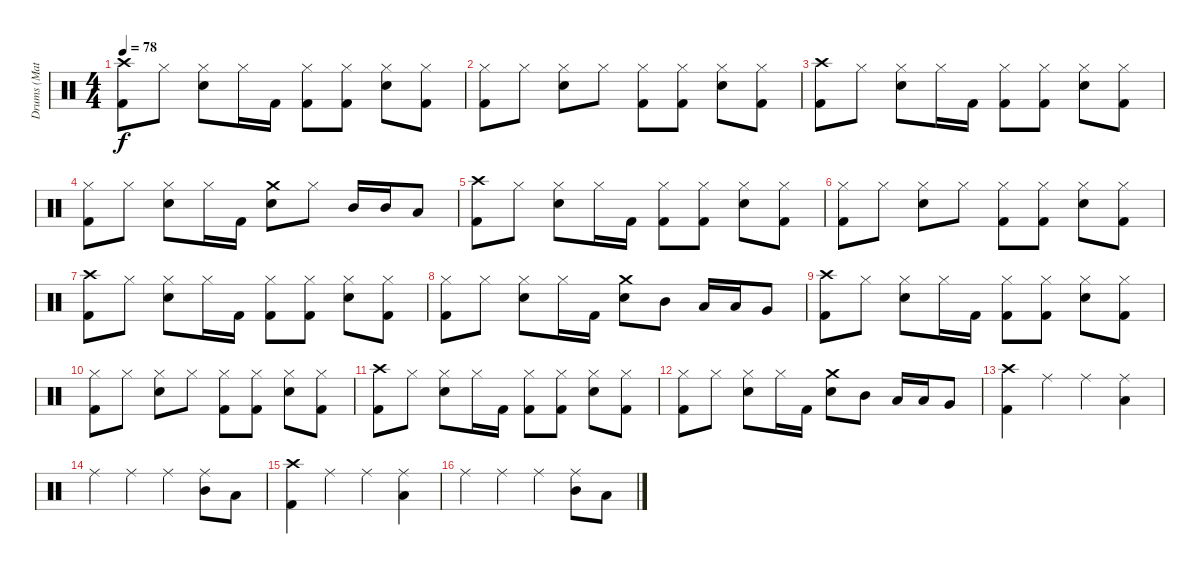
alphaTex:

\track ("Drums (Matt)" "Drums (Mat") {instrument percussion}
\staff {score}
\articulation defaults
\ts (4 4)
\tempo 78
\clef neutral
\ks c
("Crash high (hit)" "Kick (hit) 2").8{dy f} "Hi-Hat (closed)".8 ("Hi-Hat (closed)" "Snare (hit) 2").8 "Hi-Hat (closed)".16 "Kick (hit) 2".16 ("Hi-Hat (closed)" "Kick (hit) 2").8 ("Hi-Hat (closed)" "Kick (hit) 2").8 ("Hi-Hat (closed)" "Snare (hit) 2").8 ("Hi-Hat (closed)" "Kick (hit) 2").8 |
("Hi-Hat (closed)" "Kick (hit) 2").8 "Hi-Hat (closed)".8 ("Hi-Hat (closed)" "Snare (hit) 2").8 "Hi-Hat (closed)".8 ("Hi-Hat (closed)" "Kick (hit) 2").8 ("Hi-Hat (closed)" "Kick (hit) 2").8 ("Hi-Hat (closed)" "Snare (hit) 2").8 ("Hi-Hat (closed)" "Kick (hit) 2").8 |
("Crash high (hit)" "Kick (hit) 2").8 "Hi-Hat (closed)".8 ("Hi-Hat (closed)" "Snare (hit) 2").8 "Hi-Hat (closed)".16 "Kick (hit) 2".16 ("Hi-Hat (closed)" "Kick (hit) 2").8 ("Hi-Hat (closed)" "Kick (hit) 2").8 ("Hi-Hat (closed)" "Snare (hit) 2").8 ("Hi-Hat (closed)" "Kick (hit) 2").8 |
("Hi-Hat (closed)" "Kick (hit) 2").8 "Hi-Hat (closed)".8 ("Hi-Hat (closed)" "Snare (hit) 2").8 "Hi-Hat (closed)".16 "Kick (hit) 2".16 ("Crash medium (hit)" "Snare (hit) 2").8 "Hi-Hat (closed)".8 "Mid Tom (hit)".16 "Mid Tom (hit)".16 "Low Tom (hit)".8 |
("Crash high (hit)" "Kick (hit) 2").8 "Hi-Hat (closed)".8 ("Hi-Hat (closed)" "Snare (hit) 2").8 "Hi-Hat (closed)".16 "Kick (hit) 2".16 ("Hi-Hat (closed)" "Kick (hit) 2").8 ("Hi-Hat (closed)" "Kick (hit) 2").8 ("Hi-Hat (closed)" "Snare (hit) 2").8 ("Hi-Hat (closed)" "Kick (hit) 2").8 |
("Hi-Hat (closed)" "Kick (hit) 2").8 "Hi-Hat (closed)".8 ("Hi-Hat (closed)" "Snare (hit) 2").8 "Hi-Hat (closed)".8 ("Hi-Hat (closed)" "Kick (hit) 2").8 ("Hi-Hat (closed)" "Kick (hit) 2").8 ("Hi-Hat (closed)" "Snare (hit) 2").8 ("Hi-Hat (closed)" "Kick (hit) 2").8 |
("Crash high (hit)" "Kick (hit) 2").8 "Hi-Hat (closed)".8 ("Hi-Hat (closed)" "Snare (hit) 2").8 "Hi-Hat (closed)".16 "Kick (hit) 2".16 ("Hi-Hat (closed)" "Kick (hit) 2").8 ("Hi-Hat (closed)" "Kick (hit) 2").8 ("Hi-Hat (closed)" "Snare (hit) 2").8 ("Hi-Hat (closed)" "Kick (hit) 2").8 |
("Hi-Hat (closed)" "Kick (hit) 2").8 "Hi-Hat (closed)".8 ("Hi-Hat (closed)" "Snare (hit) 2").8 "Hi-Hat (closed)".16 "Kick (hit) 2".16 ("Crash medium (hit)" "Snare (hit) 2").8 "Mid Tom (hit)".8 "Low Tom (hit)".16 "Low Tom (hit)".16 "Very Low Tom (hit)".8 |
("Crash high (hit)" "Kick (hit) 2").8 "Hi-Hat (closed)".8 ("Hi-Hat (closed)" "Snare (hit) 2").8 "Hi-Hat (closed)".16 "Kick (hit) 2".16 ("Hi-Hat (closed)" "Kick (hit) 2").8 ("Hi-Hat (closed)" "Kick (hit) 2").8 ("Hi-Hat (closed)" "Snare (hit) 2").8 ("Hi-Hat (closed)" "Kick (hit) 2").8 |
("Hi-Hat (closed)" "Kick (hit) 2").8 "Hi-Hat (closed)".8 ("Hi-Hat (closed)" "Snare (hit) 2").8 "Hi-Hat (closed)".8 ("Hi-Hat (closed)" "Kick (hit) 2").8 ("Hi-Hat (closed)" "Kick (hit) 2").8 ("Hi-Hat (closed)" "Snare (hit) 2").8 ("Hi-Hat (closed)" "Kick (hit) 2").8 |
("Crash high (hit)" "Kick (hit) 2").8 "Hi-Hat (closed)".8 ("Hi-Hat (closed)" "Snare (hit) 2").8 "Hi-Hat (closed)".16 "Kick (hit) 2".16 ("Hi-Hat (closed)" "Kick (hit) 2").8 ("Hi-Hat (closed)" "Kick (hit) 2").8 ("Hi-Hat (closed)" "Snare (hit) 2").8 ("Hi-Hat (closed)" "Kick (hit) 2").8 |
("Hi-Hat (closed)" "Kick (hit) 2").8 "Hi-Hat (closed)".8 ("Hi-Hat (closed)" "Snare (hit) 2").8 "Hi-Hat (closed)".16 "Kick (hit) 2".16 ("Crash medium (hit)" "Snare (hit) 2").8 "Mid Tom (hit)".8 "Low Tom (hit)".16 "Low Tom (hit)".16 "Very Low Tom (hit)".8 |
("Crash high (hit)" "Kick (hit) 2").4 "Ride (middle)".4 "Ride (middle)".4 ("Ride (middle)" "Low Tom (hit)").4 |
"Ride (middle)".4 "Ride (middle)".4 "Ride (middle)".4 ("Ride (middle)" "Mid Tom (hit)").8 "Low Tom (hit)".8 |
("Crash high (hit)" "Kick (hit) 2").4 "Ride (middle)".4 "Ride (middle)".4 ("Ride (middle)" "Low Tom (hit)").4 |
"Ride (middle)".4 "Ride (middle)".4 "Ride (middle)".4 ("Ride (middle)" "Mid Tom (hit)").8 "Low Tom (hit)".8
